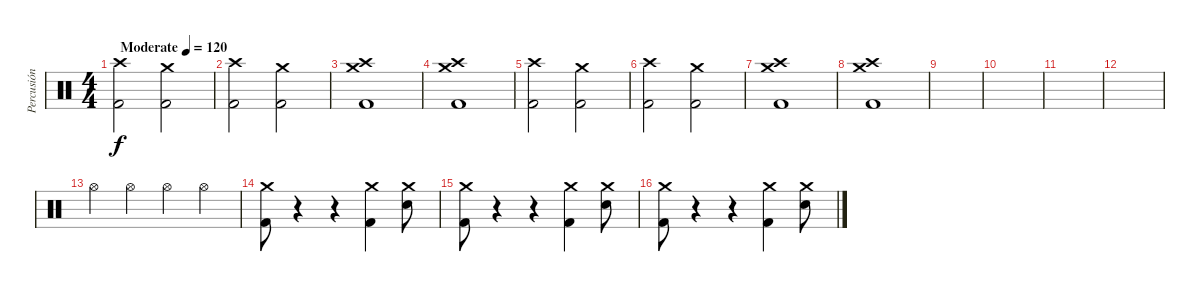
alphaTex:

\track ("Percusión" "Percusión") {instrument percussion}
\staff {score}
\articulation defaults
\ts (4 4)
\tempo (120 "Moderate")
\clef neutral
\ks c
("Kick (hit) 2" "Crash high (hit)").2{dy f} ("Kick (hit) 2" "Crash medium (hit)").2 |
("Kick (hit) 2" "Crash high (hit)").2 ("Kick (hit) 2" "Crash medium (hit)").2 |
("Kick (hit) 2" "Crash high (hit)" "Crash medium (hit)").1 |
("Kick (hit) 2" "Crash high (hit)" "Crash medium (hit)").1 |
("Kick (hit) 2" "Crash high (hit)").2 ("Kick (hit) 2" "Crash medium (hit)").2 |
("Kick (hit) 2" "Crash high (hit)").2 ("Kick (hit) 2" "Crash medium (hit)").2 |
("Kick (hit) 2" "Crash high (hit)" "Crash medium (hit)").1 |
("Kick (hit) 2" "Crash high (hit)" "Crash medium (hit)").1 |
|
|
|
|
"Hi-Hat (open)".4 "Hi-Hat (open)".4 "Hi-Hat (open)".4 "Hi-Hat (open)".4 |
("Crash medium (hit)" "Kick (hit) 2").8 r.4 r.4 ("Crash medium (hit)" "Kick (hit) 2").4 ("Crash medium (hit)" "Snare (hit) 2").8 |
("Crash medium (hit)" "Kick (hit) 2").8 r.4 r.4 ("Crash medium (hit)" "Kick (hit) 2").4 ("Crash medium (hit)" "Snare (hit) 2").8 |
("Crash medium (hit)" "Kick (hit) 2").8 r.4 r.4 ("Crash medium (hit)" "Kick (hit) 2").4 ("Crash medium (hit)" "Snare (hit) 2").8
